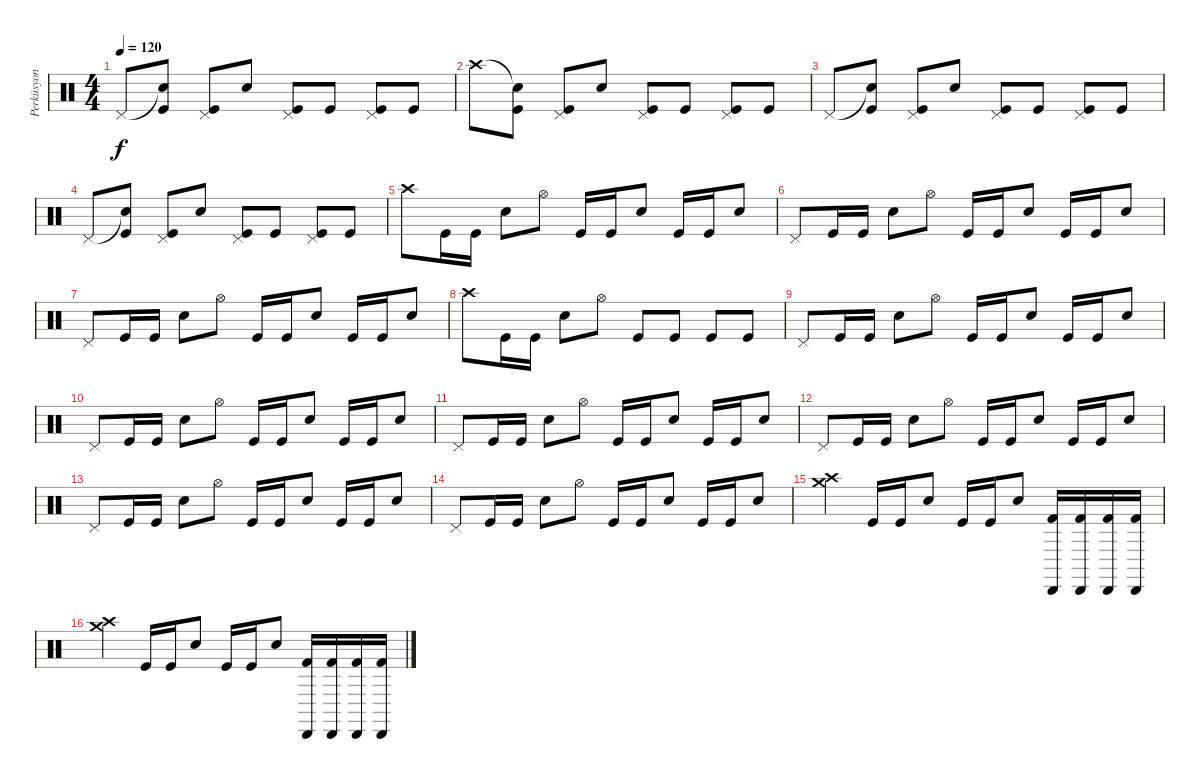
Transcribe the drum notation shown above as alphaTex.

\track ("Perküsyon" "Perküsyon") {instrument percussion}
\staff {score}
\articulation defaults
\ts (4 4)
\tempo 120
\clef neutral
\ks c "Pedal Hi-Hat (hit)".8{dy f}
("Snare (hit)"{t} "Kick (hit)").8 ("Pedal Hi-Hat (hit)" "Kick (hit)").8 "Snare (hit) 2".8 ("Pedal Hi-Hat (hit)" "Kick (hit)").8 "Kick (hit)".8 ("Pedal Hi-Hat (hit)" "Kick (hit)").8 "Kick (hit)".8 |
"Crash high (hit)".8 ("Snare (hit)"{t} "Kick (hit)").8 ("Pedal Hi-Hat (hit)" "Kick (hit)").8 "Snare (hit) 2".8 ("Pedal Hi-Hat (hit)" "Kick (hit)").8 "Kick (hit)".8 ("Pedal Hi-Hat (hit)" "Kick (hit)").8 "Kick (hit)".8 |
"Pedal Hi-Hat (hit)".8 ("Snare (hit)"{t} "Kick (hit)").8 ("Pedal Hi-Hat (hit)" "Kick (hit)").8 "Snare (hit) 2".8 ("Pedal Hi-Hat (hit)" "Kick (hit)").8 "Kick (hit)".8 ("Pedal Hi-Hat (hit)" "Kick (hit)").8 "Kick (hit)".8 |
"Pedal Hi-Hat (hit)".8 ("Snare (hit)"{t} "Kick (hit)").8 ("Pedal Hi-Hat (hit)" "Kick (hit)").8 "Snare (hit) 2".8 ("Pedal Hi-Hat (hit)" "Kick (hit)").8 "Kick (hit)".8 ("Pedal Hi-Hat (hit)" "Kick (hit)").8 "Kick (hit)".8 |
"Crash high (hit)".8 "Kick (hit)".16 "Kick (hit)".16 "Snare (hit) 2".8 "Hi-Hat (open)".8 "Kick (hit)".16 "Kick (hit)".16 "Snare (hit) 2".8 "Kick (hit)".16 "Kick (hit)".16 "Snare (hit) 2".8 |
"Pedal Hi-Hat (hit)".8 "Kick (hit)".16 "Kick (hit)".16 "Snare (hit) 2".8 "Hi-Hat (open)".8 "Kick (hit)".16 "Kick (hit)".16 "Snare (hit) 2".8 "Kick (hit)".16 "Kick (hit)".16 "Snare (hit) 2".8 |
"Pedal Hi-Hat (hit)".8 "Kick (hit)".16 "Kick (hit)".16 "Snare (hit) 2".8 "Hi-Hat (open)".8 "Kick (hit)".16 "Kick (hit)".16 "Snare (hit) 2".8 "Kick (hit)".16 "Kick (hit)".16 "Snare (hit) 2".8 |
"Crash high (hit)".8 "Kick (hit)".16 "Kick (hit)".16 "Snare (hit) 2".8 "Hi-Hat (open)".8 "Kick (hit)".8 "Kick (hit)".8 "Kick (hit)".8 "Kick (hit)".8 |
"Pedal Hi-Hat (hit)".8 "Kick (hit)".16 "Kick (hit)".16 "Snare (hit) 2".8 "Hi-Hat (open)".8 "Kick (hit)".16 "Kick (hit)".16 "Snare (hit) 2".8 "Kick (hit)".16 "Kick (hit)".16 "Snare (hit) 2".8 |
"Pedal Hi-Hat (hit)".8 "Kick (hit)".16 "Kick (hit)".16 "Snare (hit) 2".8 "Hi-Hat (open)".8 "Kick (hit)".16 "Kick (hit)".16 "Snare (hit) 2".8 "Kick (hit)".16 "Kick (hit)".16 "Snare (hit) 2".8 |
"Pedal Hi-Hat (hit)".8 "Kick (hit)".16 "Kick (hit)".16 "Snare (hit) 2".8 "Hi-Hat (open)".8 "Kick (hit)".16 "Kick (hit)".16 "Snare (hit) 2".8 "Kick (hit)".16 "Kick (hit)".16 "Snare (hit) 2".8 |
"Pedal Hi-Hat (hit)".8 "Kick (hit)".16 "Kick (hit)".16 "Snare (hit) 2".8 "Hi-Hat (open)".8 "Kick (hit)".16 "Kick (hit)".16 "Snare (hit) 2".8 "Kick (hit)".16 "Kick (hit)".16 "Snare (hit) 2".8 |
"Pedal Hi-Hat (hit)".8 "Kick (hit)".16 "Kick (hit)".16 "Snare (hit) 2".8 "Hi-Hat (open)".8 "Kick (hit)".16 "Kick (hit)".16 "Snare (hit) 2".8 "Kick (hit)".16 "Kick (hit)".16 "Snare (hit) 2".8 |
"Pedal Hi-Hat (hit)".8 "Kick (hit)".16 "Kick (hit)".16 "Snare (hit) 2".8 "Hi-Hat (open)".8 "Kick (hit)".16 "Kick (hit)".16 "Snare (hit) 2".8 "Kick (hit)".16 "Kick (hit)".16 "Snare (hit) 2".8 |
("Crash high (hit)" "Crash medium (hit)").4 "Kick (hit)".16 "Kick (hit)".16 "Electric Snare (hit)".8 "Kick (hit)".16 "Kick (hit)".16 "Electric Snare (hit)".8 ("Cabasa (hit)" "Kick (hit) 2").16 ("Cabasa (hit)" "Kick (hit) 2").16 ("Cabasa (hit)" "Kick (hit) 2").16 ("Cabasa (hit)" "Kick (hit) 2").16 |
("Crash high (hit)" "Crash medium (hit)").4 "Kick (hit)".16 "Kick (hit)".16 "Electric Snare (hit)".8 "Kick (hit)".16 "Kick (hit)".16 "Electric Snare (hit)".8 ("Cabasa (hit)" "Kick (hit) 2").16 ("Cabasa (hit)" "Kick (hit) 2").16 ("Cabasa (hit)" "Kick (hit) 2").16 ("Cabasa (hit)" "Kick (hit) 2").16
